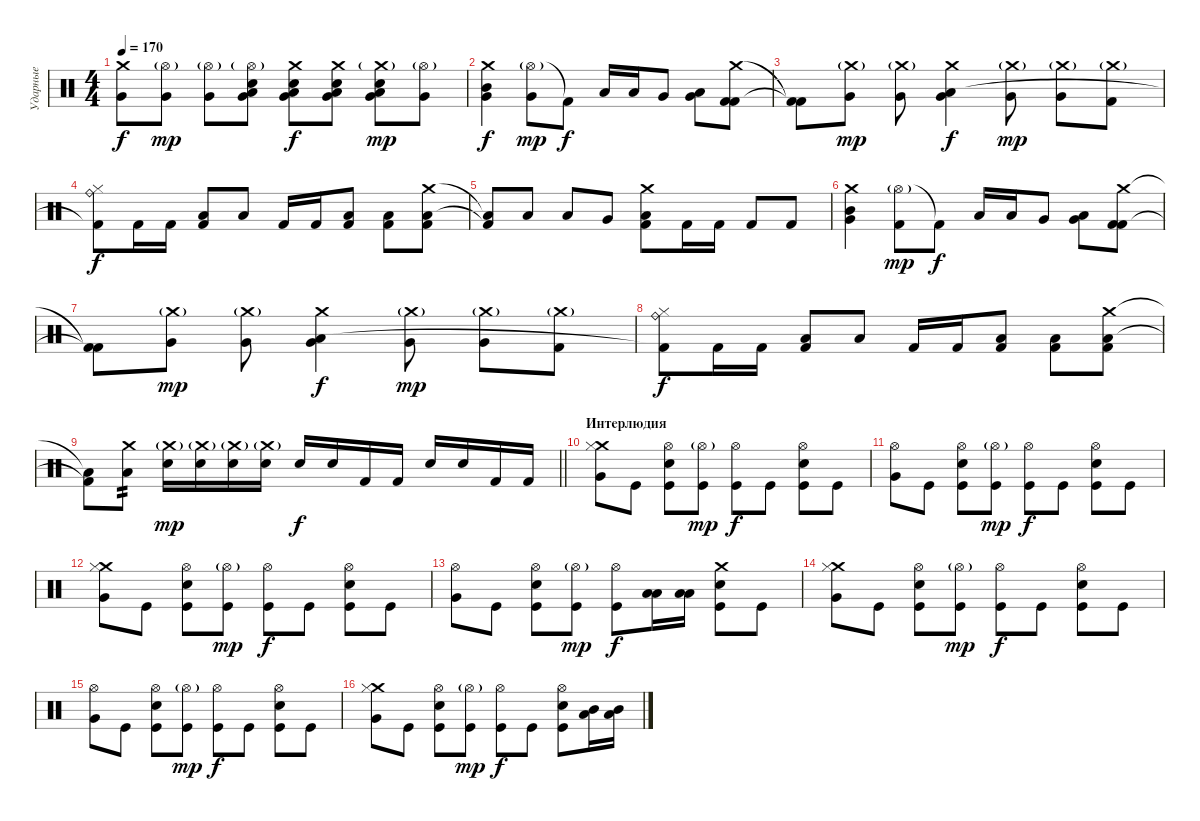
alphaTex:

\track ("Ударные" "Ударные") {instrument percussion}
\staff {score}
\articulation defaults
\ts (4 4)
\tempo 170
\clef neutral
\ks c
("Crash medium (hit)" "Very Low Tom (hit)").8{dy f} ("Hi-Hat (open)"{g} "Very Low Tom (hit)").8{dy mp} ("Hi-Hat (open)"{g} "Very Low Tom (hit)").8 ("Hi-Hat (open)"{g} "Electric Snare (hit)" "Low Tom (hit)" "Very Low Tom (hit)").8 ("Crash medium (hit)" "Electric Snare (hit)" "Low Tom (hit)" "Very Low Tom (hit)").8{dy f} ("Crash medium (hit)" "Electric Snare (hit)" "Low Tom (hit)" "Very Low Tom (hit)").8 ("Crash medium (hit)"{g} "Electric Snare (hit)" "Low Tom (hit)" "Very Low Tom (hit)").8{dy mp} ("Hi-Hat (open)"{g} "Very Low Tom (hit)").8 |
("Crash medium (hit)" "Mid Tom (hit)" "Very Low Tom (hit)").4{dy f} ("Hi-Hat (open)"{g} "Very Low Tom (hit)").8{dy mp} "Kick (hit) 2"{t}.8{dy f} "Low Tom (hit)".16 "Low Tom (hit)".16 "Very Low Tom (hit)".8 ("Low Tom (hit)" "Very Low Tom (hit)").8 ("Crash medium (hit)" "Kick (hit) 2" "Kick (hit) 2").8 |
("Kick (hit) 2"{t} "Kick (hit) 2"{t}).8 ("Crash medium (hit)"{g} "Very Low Tom (hit)").8{dy mp} ("Crash medium (hit)"{g} "Very Low Tom (hit)").8 ("Crash medium (hit)" "Very Low Tom (hit)" "Low Tom (hit)").4{dy f} ("Crash medium (hit)"{g} "Very Low Tom (hit)").8{dy mp} ("Crash medium (hit)"{g} "Very Low Tom (hit)").8 ("Crash medium (hit)"{g} "Kick (hit) 2").8 |
("Ride (bell)" "Hi-Hat (closed)" "Kick (hit) 2"{t}).8{dy f} "Kick (hit) 2".16 "Kick (hit) 2".16 ("Low Tom (hit)" "Kick (hit) 2").8 "Low Tom (hit)".8 "Kick (hit) 2".16 "Kick (hit) 2".16 ("Low Tom (hit)" "Kick (hit) 2").8 ("Low Tom (hit)" "Kick (hit) 2").8 ("Crash medium (hit)" "Low Tom (hit)" "Kick (hit) 2").8 |
("Low Tom (hit)"{t} "Kick (hit) 2"{t}).8 "Low Floor Tom (hit)".8 "Low Tom (hit)".8 "Very Low Tom (hit)".8 ("Crash medium (hit)" "Low Tom (hit)" "Kick (hit) 2").8 "Kick (hit) 2".16 "Kick (hit) 2".16 "Kick (hit) 2".8 "Kick (hit) 2".8 |
("Crash medium (hit)" "Mid Tom (hit)" "Very Low Tom (hit)").4 ("Hi-Hat (open)"{g} "Kick (hit) 2").8{dy mp} "Kick (hit) 2"{t}.8{dy f} "Low Tom (hit)".16 "Low Tom (hit)".16 "Very Low Tom (hit)".8 ("Low Tom (hit)" "Very Low Tom (hit)").8 ("Crash medium (hit)" "Kick (hit) 2" "Kick (hit) 2").8 |
("Kick (hit) 2"{t} "Kick (hit) 2"{t}).8 ("Crash medium (hit)"{g} "Very Low Tom (hit)").8{dy mp} ("Crash medium (hit)"{g} "Very Low Tom (hit)").8 ("Crash medium (hit)" "Very Low Tom (hit)" "Low Tom (hit)").4{dy f} ("Crash medium (hit)"{g} "Very Low Tom (hit)").8{dy mp} ("Crash medium (hit)"{g} "Very Low Tom (hit)").8 ("Crash medium (hit)"{g} "Kick (hit) 2").8 |
("Ride (bell)" "Hi-Hat (closed)" "Kick (hit) 2"{t}).8{dy f} "Kick (hit) 2".16 "Kick (hit) 2".16 ("Low Tom (hit)" "Kick (hit) 2").8 "Low Tom (hit)".8 "Kick (hit) 2".16 "Kick (hit) 2".16 ("Low Tom (hit)" "Kick (hit) 2").8 ("Low Tom (hit)" "Kick (hit) 2").8 ("Crash medium (hit)" "Low Tom (hit)" "Kick (hit) 2").8 |
\barLineRight lightlight
("Low Tom (hit)"{t} "Kick (hit) 2"{t}).8 ("Crash medium (hit)" "Low Floor Tom (hit)").8{tp 2} ("Crash medium (hit)"{g} "Electric Snare (hit)").16{dy mp} ("Crash medium (hit)"{g} "Electric Snare (hit)").16 ("Crash medium (hit)"{g} "Electric Snare (hit)").16 ("Crash medium (hit)"{g} "Electric Snare (hit)").16 "Electric Snare (hit)".16{dy f} "Electric Snare (hit)".16 "Kick (hit) 2".16 "Kick (hit) 2".16 "Electric Snare (hit)".16 "Electric Snare (hit)".16 "Kick (hit) 2".16 "Kick (hit) 2".16 |
\section ("" "Интерлюдия")
("Crash medium (hit)" "Hi-Hat (closed)" "Very Low Tom (hit)").8 "Kick (hit)".8 ("Hi-Hat (open)" "Electric Snare (hit)" "Kick (hit)").8 ("Hi-Hat (open)"{g} "Kick (hit)").8{dy mp} ("Hi-Hat (open)" "Kick (hit)").8{dy f} "Kick (hit)".8 ("Hi-Hat (open)" "Electric Snare (hit)" "Kick (hit)").8 "Kick (hit)".8 |
("Hi-Hat (open)" "Very Low Tom (hit)").8 "Kick (hit)".8 ("Hi-Hat (open)" "Electric Snare (hit)" "Kick (hit)").8 ("Hi-Hat (open)"{g} "Kick (hit)").8{dy mp} ("Hi-Hat (open)" "Kick (hit)").8{dy f} "Kick (hit)".8 ("Hi-Hat (open)" "Electric Snare (hit)" "Kick (hit)").8 "Kick (hit)".8 |
("Crash medium (hit)" "Hi-Hat (closed)" "Very Low Tom (hit)").8 "Kick (hit)".8 ("Hi-Hat (open)" "Electric Snare (hit)" "Kick (hit)").8 ("Hi-Hat (open)"{g} "Kick (hit)").8{dy mp} ("Hi-Hat (open)" "Kick (hit)").8{dy f} "Kick (hit)".8 ("Hi-Hat (open)" "Electric Snare (hit)" "Kick (hit)").8 "Kick (hit)".8 |
("Hi-Hat (open)" "Very Low Tom (hit)").8 "Kick (hit)".8 ("Hi-Hat (open)" "Electric Snare (hit)" "Kick (hit)").8 ("Hi-Hat (open)"{g} "Kick (hit)").8{dy mp} ("Hi-Hat (open)" "Kick (hit)").8{dy f} ("Low Tom (hit)" "Low Tom (hit)").16 ("Low Tom (hit)" "Low Tom (hit)").16 ("Crash medium (hit)" "Electric Snare (hit)" "Kick (hit)").8 "Kick (hit)".8 |
("Crash medium (hit)" "Hi-Hat (closed)" "Very Low Tom (hit)").8 "Kick (hit)".8 ("Hi-Hat (open)" "Electric Snare (hit)" "Kick (hit)").8 ("Hi-Hat (open)"{g} "Kick (hit)").8{dy mp} ("Hi-Hat (open)" "Kick (hit)").8{dy f} "Kick (hit)".8 ("Hi-Hat (open)" "Electric Snare (hit)" "Kick (hit)").8 "Kick (hit)".8 |
("Hi-Hat (open)" "Very Low Tom (hit)").8 "Kick (hit)".8 ("Hi-Hat (open)" "Electric Snare (hit)" "Kick (hit)").8 ("Hi-Hat (open)"{g} "Kick (hit)").8{dy mp} ("Hi-Hat (open)" "Kick (hit)").8{dy f} "Kick (hit)".8 ("Hi-Hat (open)" "Electric Snare (hit)" "Kick (hit)").8 "Kick (hit)".8 |
("Crash medium (hit)" "Hi-Hat (closed)" "Very Low Tom (hit)").8 "Kick (hit)".8 ("Hi-Hat (open)" "Electric Snare (hit)" "Kick (hit)").8 ("Hi-Hat (open)"{g} "Kick (hit)").8{dy mp} ("Hi-Hat (open)" "Kick (hit)").8{dy f} "Kick (hit)".8 ("Hi-Hat (open)" "Electric Snare (hit)" "Kick (hit)").8 ("Mid Tom (hit)" "Low Tom (hit)").16 ("Mid Tom (hit)" "Low Tom (hit)").16
